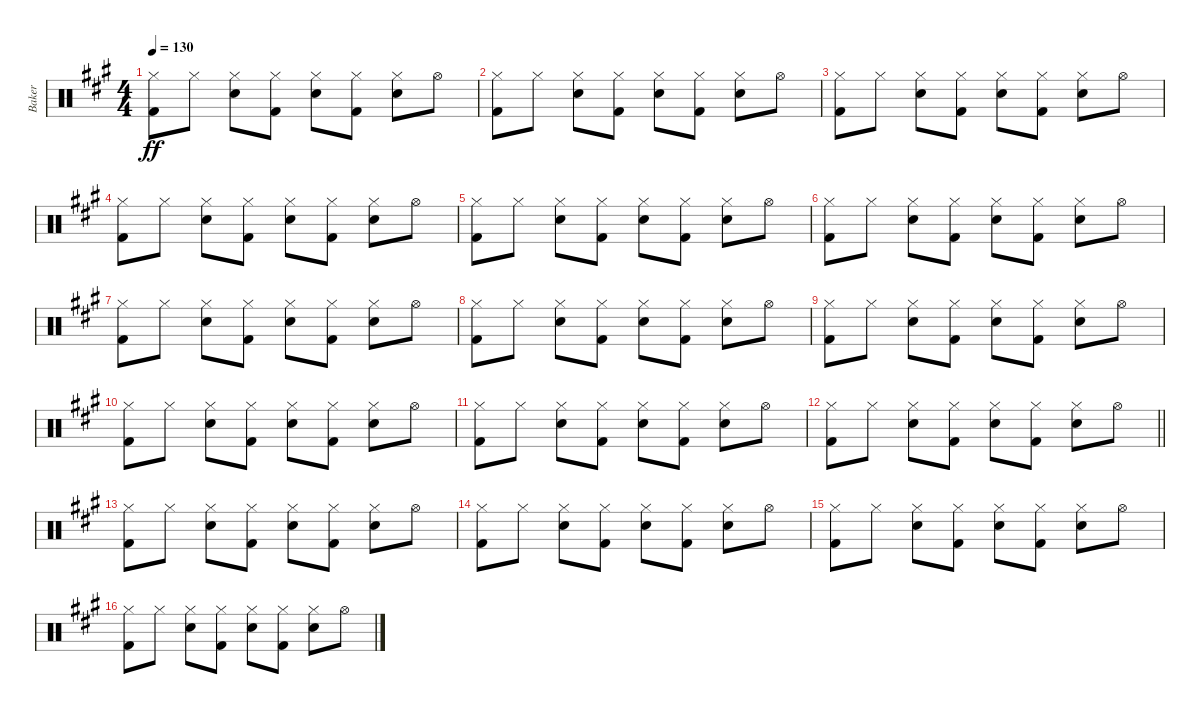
\track ("Baker" "Baker") {instrument percussion}
\staff {score}
\articulation defaults
\ts (4 4)
\tempo 130
\clef neutral
\ks a
("Hi-Hat (closed)" "Kick (hit) 2").8{dy ff} "Hi-Hat (closed)".8 ("Hi-Hat (closed)" "Snare (hit) 2").8 ("Hi-Hat (closed)" "Kick (hit) 2").8 ("Hi-Hat (closed)" "Snare (hit) 2").8 ("Hi-Hat (closed)" "Kick (hit) 2").8 ("Hi-Hat (closed)" "Snare (hit) 2").8 "Hi-Hat (open)".8 |
("Hi-Hat (closed)" "Kick (hit) 2").8 "Hi-Hat (closed)".8 ("Hi-Hat (closed)" "Snare (hit) 2").8 ("Hi-Hat (closed)" "Kick (hit) 2").8 ("Hi-Hat (closed)" "Snare (hit) 2").8 ("Hi-Hat (closed)" "Kick (hit) 2").8 ("Hi-Hat (closed)" "Snare (hit) 2").8 "Hi-Hat (open)".8 |
("Hi-Hat (closed)" "Kick (hit) 2").8 "Hi-Hat (closed)".8 ("Hi-Hat (closed)" "Snare (hit) 2").8 ("Hi-Hat (closed)" "Kick (hit) 2").8 ("Hi-Hat (closed)" "Snare (hit) 2").8 ("Hi-Hat (closed)" "Kick (hit) 2").8 ("Hi-Hat (closed)" "Snare (hit) 2").8 "Hi-Hat (open)".8 |
("Hi-Hat (closed)" "Kick (hit) 2").8 "Hi-Hat (closed)".8 ("Hi-Hat (closed)" "Snare (hit) 2").8 ("Hi-Hat (closed)" "Kick (hit) 2").8 ("Hi-Hat (closed)" "Snare (hit) 2").8 ("Hi-Hat (closed)" "Kick (hit) 2").8 ("Hi-Hat (closed)" "Snare (hit) 2").8 "Hi-Hat (open)".8 |
("Hi-Hat (closed)" "Kick (hit) 2").8 "Hi-Hat (closed)".8 ("Hi-Hat (closed)" "Snare (hit) 2").8 ("Hi-Hat (closed)" "Kick (hit) 2").8 ("Hi-Hat (closed)" "Snare (hit) 2").8 ("Hi-Hat (closed)" "Kick (hit) 2").8 ("Hi-Hat (closed)" "Snare (hit) 2").8 "Hi-Hat (open)".8 |
("Hi-Hat (closed)" "Kick (hit) 2").8 "Hi-Hat (closed)".8 ("Hi-Hat (closed)" "Snare (hit) 2").8 ("Hi-Hat (closed)" "Kick (hit) 2").8 ("Hi-Hat (closed)" "Snare (hit) 2").8 ("Hi-Hat (closed)" "Kick (hit) 2").8 ("Hi-Hat (closed)" "Snare (hit) 2").8 "Hi-Hat (open)".8 |
("Hi-Hat (closed)" "Kick (hit) 2").8 "Hi-Hat (closed)".8 ("Hi-Hat (closed)" "Snare (hit) 2").8 ("Hi-Hat (closed)" "Kick (hit) 2").8 ("Hi-Hat (closed)" "Snare (hit) 2").8 ("Hi-Hat (closed)" "Kick (hit) 2").8 ("Hi-Hat (closed)" "Snare (hit) 2").8 "Hi-Hat (open)".8 |
("Hi-Hat (closed)" "Kick (hit) 2").8 "Hi-Hat (closed)".8 ("Hi-Hat (closed)" "Snare (hit) 2").8 ("Hi-Hat (closed)" "Kick (hit) 2").8 ("Hi-Hat (closed)" "Snare (hit) 2").8 ("Hi-Hat (closed)" "Kick (hit) 2").8 ("Hi-Hat (closed)" "Snare (hit) 2").8 "Hi-Hat (open)".8 |
("Hi-Hat (closed)" "Kick (hit) 2").8 "Hi-Hat (closed)".8 ("Hi-Hat (closed)" "Snare (hit) 2").8 ("Hi-Hat (closed)" "Kick (hit) 2").8 ("Hi-Hat (closed)" "Snare (hit) 2").8 ("Hi-Hat (closed)" "Kick (hit) 2").8 ("Hi-Hat (closed)" "Snare (hit) 2").8 "Hi-Hat (open)".8 |
("Hi-Hat (closed)" "Kick (hit) 2").8 "Hi-Hat (closed)".8 ("Hi-Hat (closed)" "Snare (hit) 2").8 ("Hi-Hat (closed)" "Kick (hit) 2").8 ("Hi-Hat (closed)" "Snare (hit) 2").8 ("Hi-Hat (closed)" "Kick (hit) 2").8 ("Hi-Hat (closed)" "Snare (hit) 2").8 "Hi-Hat (open)".8 |
("Hi-Hat (closed)" "Kick (hit) 2").8 "Hi-Hat (closed)".8 ("Hi-Hat (closed)" "Snare (hit) 2").8 ("Hi-Hat (closed)" "Kick (hit) 2").8 ("Hi-Hat (closed)" "Snare (hit) 2").8 ("Hi-Hat (closed)" "Kick (hit) 2").8 ("Hi-Hat (closed)" "Snare (hit) 2").8 "Hi-Hat (open)".8 |
\barLineRight lightlight
("Hi-Hat (closed)" "Kick (hit) 2").8 "Hi-Hat (closed)".8 ("Hi-Hat (closed)" "Snare (hit) 2").8 ("Hi-Hat (closed)" "Kick (hit) 2").8 ("Hi-Hat (closed)" "Snare (hit) 2").8 ("Hi-Hat (closed)" "Kick (hit) 2").8 ("Hi-Hat (closed)" "Snare (hit) 2").8 "Hi-Hat (open)".8 |
("Hi-Hat (closed)" "Kick (hit) 2").8 "Hi-Hat (closed)".8 ("Hi-Hat (closed)" "Snare (hit) 2").8 ("Hi-Hat (closed)" "Kick (hit) 2").8 ("Hi-Hat (closed)" "Snare (hit) 2").8 ("Hi-Hat (closed)" "Kick (hit) 2").8 ("Hi-Hat (closed)" "Snare (hit) 2").8 "Hi-Hat (open)".8 |
("Hi-Hat (closed)" "Kick (hit) 2").8 "Hi-Hat (closed)".8 ("Hi-Hat (closed)" "Snare (hit) 2").8 ("Hi-Hat (closed)" "Kick (hit) 2").8 ("Hi-Hat (closed)" "Snare (hit) 2").8 ("Hi-Hat (closed)" "Kick (hit) 2").8 ("Hi-Hat (closed)" "Snare (hit) 2").8 "Hi-Hat (open)".8 |
("Hi-Hat (closed)" "Kick (hit) 2").8 "Hi-Hat (closed)".8 ("Hi-Hat (closed)" "Snare (hit) 2").8 ("Hi-Hat (closed)" "Kick (hit) 2").8 ("Hi-Hat (closed)" "Snare (hit) 2").8 ("Hi-Hat (closed)" "Kick (hit) 2").8 ("Hi-Hat (closed)" "Snare (hit) 2").8 "Hi-Hat (open)".8 |
("Hi-Hat (closed)" "Kick (hit) 2").8 "Hi-Hat (closed)".8 ("Hi-Hat (closed)" "Snare (hit) 2").8 ("Hi-Hat (closed)" "Kick (hit) 2").8 ("Hi-Hat (closed)" "Snare (hit) 2").8 ("Hi-Hat (closed)" "Kick (hit) 2").8 ("Hi-Hat (closed)" "Snare (hit) 2").8 "Hi-Hat (open)".8
